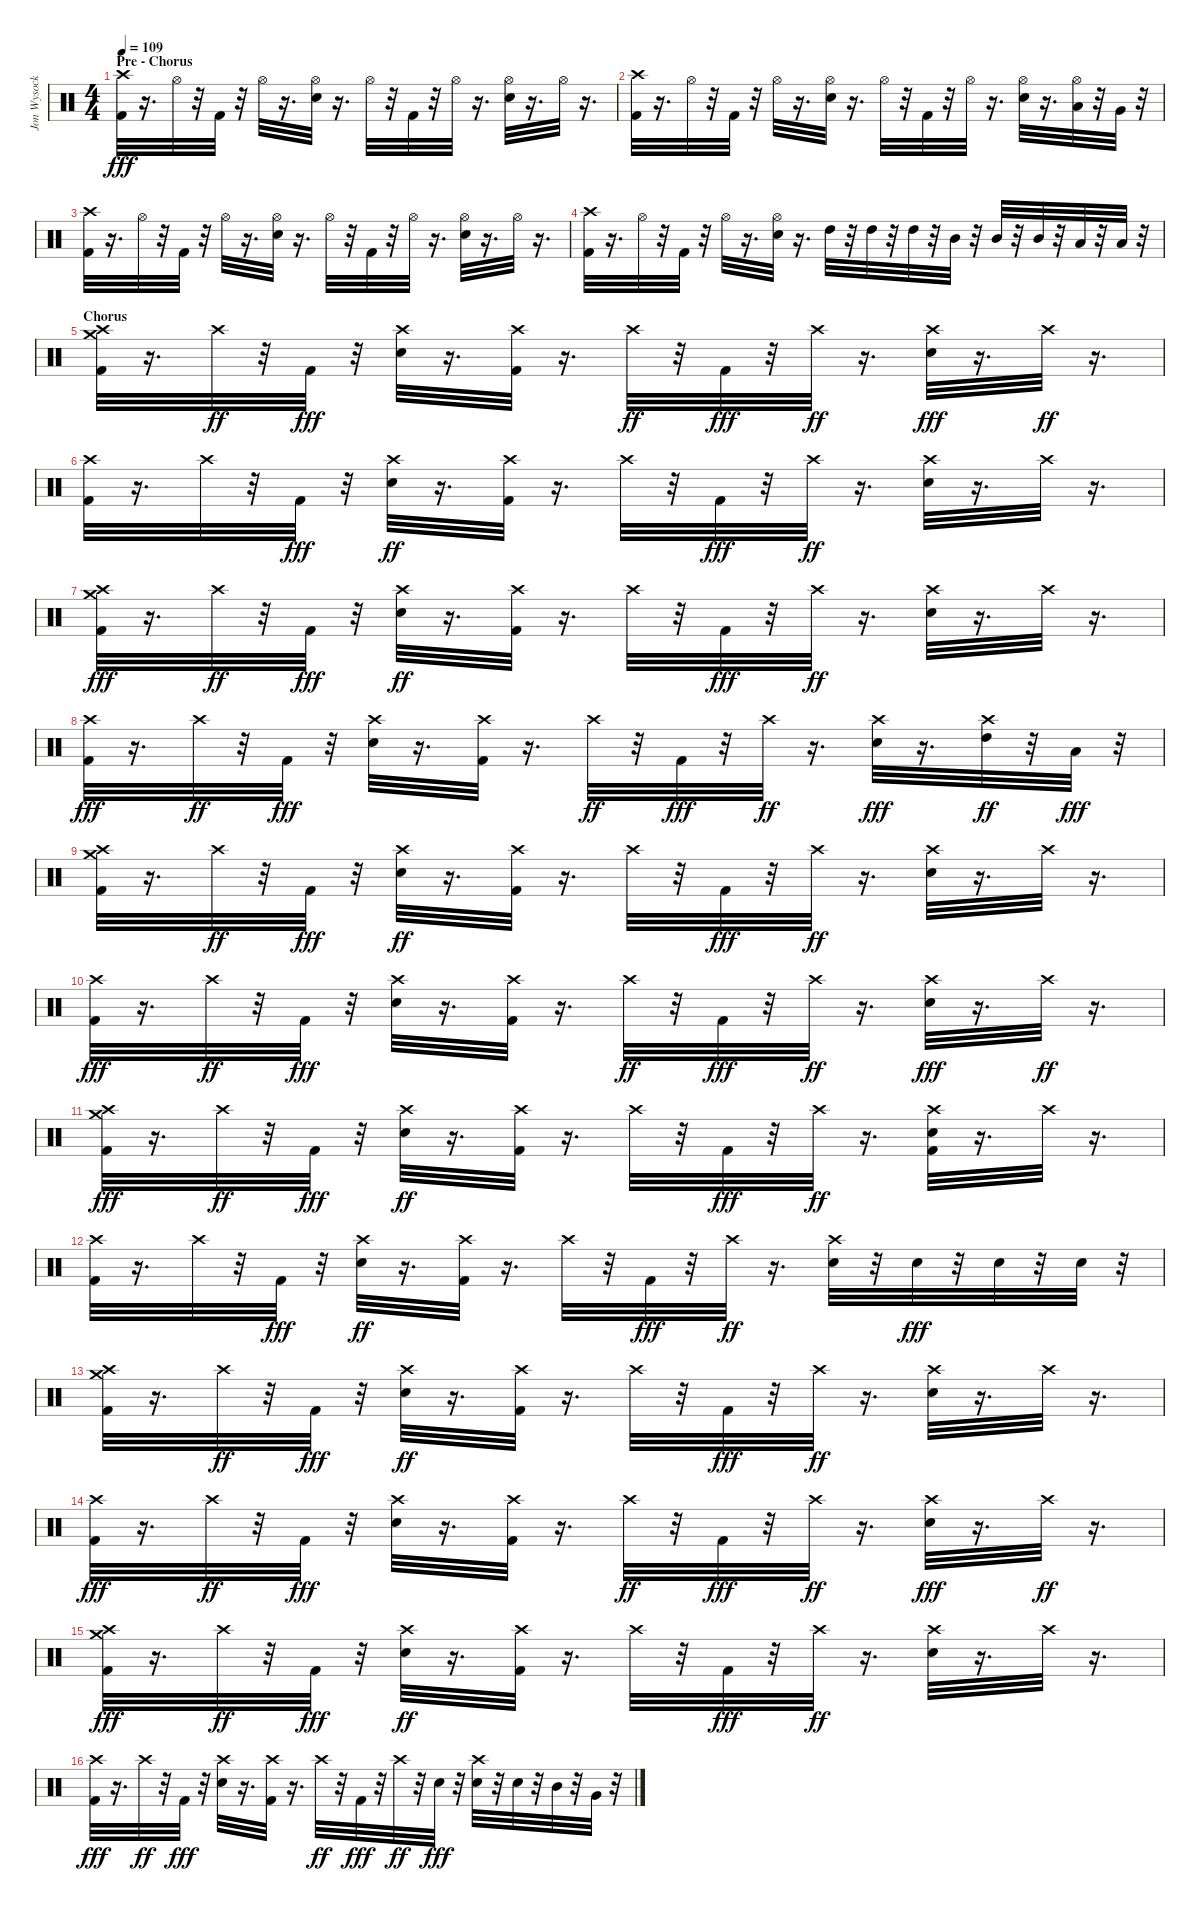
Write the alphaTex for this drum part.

\track ("Jon Wysocki - Drums" "Jon Wysock") {instrument percussion}
\staff {score}
\articulation defaults
\ts (4 4)
\section ("" "Pre - Chorus")
\tempo 109
\clef neutral
\ks c
("Crash high (hit)" "Kick (hit) 2").32{dy fff} r.16{d} "Hi-Hat (open)".32 r.32 "Kick (hit) 2".32 r.32 "Hi-Hat (open)".32 r.16{d} ("Hi-Hat (open)" "Electric Snare (hit)").32 r.16{d} "Hi-Hat (open)".32 r.32 "Kick (hit) 2".32 r.32 "Hi-Hat (open)".32 r.16{d} ("Hi-Hat (open)" "Electric Snare (hit)").32 r.16{d} "Hi-Hat (open)".32 r.16{d} |
("Crash high (hit)" "Kick (hit) 2").32 r.16{d} "Hi-Hat (open)".32 r.32 "Kick (hit) 2".32 r.32 "Hi-Hat (open)".32 r.16{d} ("Hi-Hat (open)" "Electric Snare (hit)").32 r.16{d} "Hi-Hat (open)".32 r.32 "Kick (hit) 2".32 r.32 "Hi-Hat (open)".32 r.16{d} ("Hi-Hat (open)" "Electric Snare (hit)").32 r.16{d} ("Hi-Hat (open)" "Low Tom (hit)").32 r.32 "Very Low Tom (hit)".32 r.32 |
("Kick (hit) 2" "Crash high (hit)").32 r.16{d} "Hi-Hat (open)".32 r.32 "Kick (hit) 2".32 r.32 "Hi-Hat (open)".32 r.16{d} ("Electric Snare (hit)" "Hi-Hat (open)").32 r.16{d} "Hi-Hat (open)".32 r.32 "Kick (hit) 2".32 r.32 "Hi-Hat (open)".32 r.16{d} ("Electric Snare (hit)" "Hi-Hat (open)").32 r.16{d} "Hi-Hat (open)".32 r.16{d} |
("Crash high (hit)" "Kick (hit) 2").32 r.16{d} "Hi-Hat (open)".32 r.32 "Kick (hit) 2".32 r.32 "Hi-Hat (open)".32 r.16{d} ("Electric Snare (hit)" "Hi-Hat (open)").32 r.16{d} "High Tom (hit)".32 r.32 "High Tom (hit)".32 r.32 "High Tom (hit)".32 r.32 "Mid Tom (hit)".32 r.32 "Mid Tom (hit)".32 r.32 "Mid Tom (hit)".32 r.32 "Low Tom (hit)".32 r.32 "Low Tom (hit)".32 r.32 |
\section ("" "Chorus")
("Crash medium (hit)" "Crash high (hit)" "Kick (hit) 2").32 r.16{d} "Crash high (hit)".32{dy ff} r.32 "Kick (hit) 2".32{dy fff} r.32 ("Crash high (hit)" "Electric Snare (hit)").32 r.16{d} ("Crash high (hit)" "Kick (hit) 2").32 r.16{d} "Crash high (hit)".32{dy ff} r.32 "Kick (hit) 2".32{dy fff} r.32 "Crash high (hit)".32{dy ff} r.16{d} ("Crash high (hit)" "Electric Snare (hit)").32{dy fff} r.16{d} "Crash high (hit)".32{dy ff} r.16{d} |
("Kick (hit) 2" "Crash high (hit)").32 r.16{d} "Crash high (hit)".32 r.32 "Kick (hit) 2".32{dy fff} r.32 ("Electric Snare (hit)" "Crash high (hit)").32{dy ff} r.16{d} ("Kick (hit) 2" "Crash high (hit)").32 r.16{d} "Crash high (hit)".32 r.32 "Kick (hit) 2".32{dy fff} r.32 "Crash high (hit)".32{dy ff} r.16{d} ("Electric Snare (hit)" "Crash high (hit)").32 r.16{d} "Crash high (hit)".32 r.16{d} |
("Kick (hit) 2" "Crash high (hit)" "Crash medium (hit)").32{dy fff} r.16{d} "Crash high (hit)".32{dy ff} r.32 "Kick (hit) 2".32{dy fff} r.32 ("Electric Snare (hit)" "Crash high (hit)").32{dy ff} r.16{d} ("Kick (hit) 2" "Crash high (hit)").32 r.16{d} "Crash high (hit)".32 r.32 "Kick (hit) 2".32{dy fff} r.32 "Crash high (hit)".32{dy ff} r.16{d} ("Electric Snare (hit)" "Crash high (hit)").32 r.16{d} "Crash high (hit)".32 r.16{d} |
("Crash high (hit)" "Kick (hit) 2").32{dy fff} r.16{d} "Crash high (hit)".32{dy ff} r.32 "Kick (hit) 2".32{dy fff} r.32 ("Crash high (hit)" "Electric Snare (hit)").32 r.16{d} ("Crash high (hit)" "Kick (hit) 2").32 r.16{d} "Crash high (hit)".32{dy ff} r.32 "Kick (hit) 2".32{dy fff} r.32 "Crash high (hit)".32{dy ff} r.16{d} ("Crash high (hit)" "Electric Snare (hit)").32{dy fff} r.16{d} ("High Tom (hit)" "Crash high (hit)").32{dy ff} r.32 "Low Tom (hit)".32{dy fff} r.32 |
("Kick (hit) 2" "Crash high (hit)" "Crash medium (hit)").32 r.16{d} "Crash high (hit)".32{dy ff} r.32 "Kick (hit) 2".32{dy fff} r.32 ("Electric Snare (hit)" "Crash high (hit)").32{dy ff} r.16{d} ("Kick (hit) 2" "Crash high (hit)").32 r.16{d} "Crash high (hit)".32 r.32 "Kick (hit) 2".32{dy fff} r.32 "Crash high (hit)".32{dy ff} r.16{d} ("Electric Snare (hit)" "Crash high (hit)").32 r.16{d} "Crash high (hit)".32 r.16{d} |
("Crash high (hit)" "Kick (hit) 2").32{dy fff} r.16{d} "Crash high (hit)".32{dy ff} r.32 "Kick (hit) 2".32{dy fff} r.32 ("Crash high (hit)" "Electric Snare (hit)").32 r.16{d} ("Crash high (hit)" "Kick (hit) 2").32 r.16{d} "Crash high (hit)".32{dy ff} r.32 "Kick (hit) 2".32{dy fff} r.32 "Crash high (hit)".32{dy ff} r.16{d} ("Crash high (hit)" "Electric Snare (hit)").32{dy fff} r.16{d} "Crash high (hit)".32{dy ff} r.16{d} |
("Kick (hit) 2" "Crash high (hit)" "Crash medium (hit)").32{dy fff} r.16{d} "Crash high (hit)".32{dy ff} r.32 "Kick (hit) 2".32{dy fff} r.32 ("Electric Snare (hit)" "Crash high (hit)").32{dy ff} r.16{d} ("Kick (hit) 2" "Crash high (hit)").32 r.16{d} "Crash high (hit)".32 r.32 "Kick (hit) 2".32{dy fff} r.32 "Crash high (hit)".32{dy ff} r.16{d} ("Kick (hit) 2" "Electric Snare (hit)" "Crash high (hit)").32 r.16{d} "Crash high (hit)".32 r.16{d} |
("Kick (hit) 2" "Crash high (hit)").32 r.16{d} "Crash high (hit)".32 r.32 "Kick (hit) 2".32{dy fff} r.32 ("Electric Snare (hit)" "Crash high (hit)").32{dy ff} r.16{d} ("Kick (hit) 2" "Crash high (hit)").32 r.16{d} "Crash high (hit)".32 r.32 "Kick (hit) 2".32{dy fff} r.32 "Crash high (hit)".32{dy ff} r.16{d} ("Electric Snare (hit)" "Crash high (hit)").32 r.32 "Electric Snare (hit)".32{dy fff} r.32 "Electric Snare (hit)".32 r.32 "Electric Snare (hit)".32 r.32 |
("Kick (hit) 2" "Crash high (hit)" "Crash medium (hit)").32 r.16{d} "Crash high (hit)".32{dy ff} r.32 "Kick (hit) 2".32{dy fff} r.32 ("Electric Snare (hit)" "Crash high (hit)").32{dy ff} r.16{d} ("Kick (hit) 2" "Crash high (hit)").32 r.16{d} "Crash high (hit)".32 r.32 "Kick (hit) 2".32{dy fff} r.32 "Crash high (hit)".32{dy ff} r.16{d} ("Electric Snare (hit)" "Crash high (hit)").32 r.16{d} "Crash high (hit)".32 r.16{d} |
("Crash high (hit)" "Kick (hit) 2").32{dy fff} r.16{d} "Crash high (hit)".32{dy ff} r.32 "Kick (hit) 2".32{dy fff} r.32 ("Crash high (hit)" "Electric Snare (hit)").32 r.16{d} ("Crash high (hit)" "Kick (hit) 2").32 r.16{d} "Crash high (hit)".32{dy ff} r.32 "Kick (hit) 2".32{dy fff} r.32 "Crash high (hit)".32{dy ff} r.16{d} ("Crash high (hit)" "Electric Snare (hit)").32{dy fff} r.16{d} "Crash high (hit)".32{dy ff} r.16{d} |
("Kick (hit) 2" "Crash high (hit)" "Crash medium (hit)").32{dy fff} r.16{d} "Crash high (hit)".32{dy ff} r.32 "Kick (hit) 2".32{dy fff} r.32 ("Electric Snare (hit)" "Crash high (hit)").32{dy ff} r.16{d} ("Kick (hit) 2" "Crash high (hit)").32 r.16{d} "Crash high (hit)".32 r.32 "Kick (hit) 2".32{dy fff} r.32 "Crash high (hit)".32{dy ff} r.16{d} ("Electric Snare (hit)" "Crash high (hit)").32 r.16{d} "Crash high (hit)".32 r.16{d} |
("Crash high (hit)" "Kick (hit) 2").32{dy fff} r.16{d} "Crash high (hit)".32{dy ff} r.32 "Kick (hit) 2".32{dy fff} r.32 ("Crash high (hit)" "Electric Snare (hit)").32 r.16{d} ("Crash high (hit)" "Kick (hit) 2").32 r.16{d} "Crash high (hit)".32{dy ff} r.32 "Kick (hit) 2".32{dy fff} r.32 "Crash high (hit)".32{dy ff} r.32 "Electric Snare (hit)".32{dy fff} r.32 ("Crash high (hit)" "Electric Snare (hit)").32 r.32 "Electric Snare (hit)".32 r.32 "Mid Tom (hit)".32 r.32 "Very Low Tom (hit)".32 r.32
